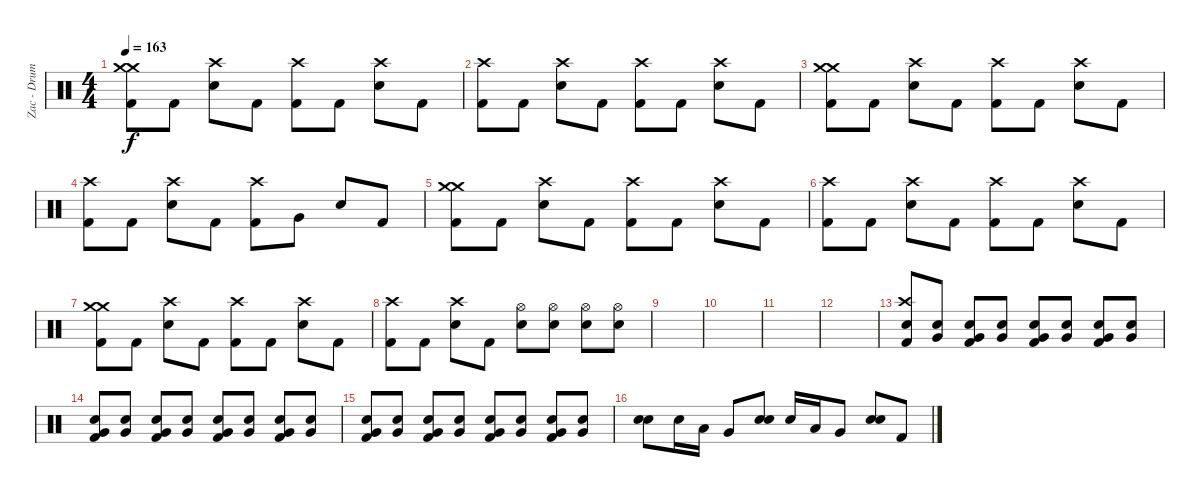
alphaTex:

\track ("Zac - Drums" "Zac - Drum") {instrument percussion}
\staff {score}
\articulation defaults
\ts (4 4)
\tempo 163
\clef neutral
\ks c
("Crash medium (hit)" "Crash medium (hit)" "Kick (hit) 2").8{dy f} "Kick (hit) 2".8 ("Crash high (hit)" "Snare (hit) 2").8 "Kick (hit) 2".8 ("Crash high (hit)" "Kick (hit) 2").8 "Kick (hit) 2".8 ("Crash high (hit)" "Snare (hit) 2").8 "Kick (hit) 2".8 |
("Crash high (hit)" "Kick (hit) 2").8 "Kick (hit) 2".8 ("Crash high (hit)" "Snare (hit) 2").8 "Kick (hit) 2".8 ("Crash high (hit)" "Kick (hit) 2").8 "Kick (hit) 2".8 ("Crash high (hit)" "Snare (hit) 2").8 "Kick (hit) 2".8 |
("Crash medium (hit)" "Crash medium (hit)" "Kick (hit) 2").8 "Kick (hit) 2".8 ("Crash high (hit)" "Snare (hit) 2").8 "Kick (hit) 2".8 ("Crash high (hit)" "Kick (hit) 2").8 "Kick (hit) 2".8 ("Crash high (hit)" "Snare (hit) 2").8 "Kick (hit) 2".8 |
("Crash high (hit)" "Kick (hit) 2").8 "Kick (hit) 2".8 ("Crash high (hit)" "Snare (hit) 2").8 "Kick (hit) 2".8 ("Crash high (hit)" "Kick (hit) 2").8 "Very Low Tom (hit)".8 "Snare (hit) 2".8 "Kick (hit) 2".8 |
("Crash medium (hit)" "Crash medium (hit)" "Kick (hit) 2").8 "Kick (hit) 2".8 ("Crash high (hit)" "Snare (hit) 2").8 "Kick (hit) 2".8 ("Crash high (hit)" "Kick (hit) 2").8 "Kick (hit) 2".8 ("Crash high (hit)" "Snare (hit) 2").8 "Kick (hit) 2".8 |
("Crash high (hit)" "Kick (hit) 2").8 "Kick (hit) 2".8 ("Crash high (hit)" "Snare (hit) 2").8 "Kick (hit) 2".8 ("Crash high (hit)" "Kick (hit) 2").8 "Kick (hit) 2".8 ("Crash high (hit)" "Snare (hit) 2").8 "Kick (hit) 2".8 |
("Crash medium (hit)" "Crash medium (hit)" "Kick (hit) 2").8 "Kick (hit) 2".8 ("Crash high (hit)" "Snare (hit) 2").8 "Kick (hit) 2".8 ("Crash high (hit)" "Kick (hit) 2").8 "Kick (hit) 2".8 ("Crash high (hit)" "Snare (hit) 2").8 "Kick (hit) 2".8 |
("Crash high (hit)" "Kick (hit) 2").8 "Kick (hit) 2".8 ("Crash high (hit)" "Snare (hit) 2").8 "Kick (hit) 2".8 ("Hi-Hat (open)" "Snare (hit) 2").8 ("Hi-Hat (open)" "Snare (hit) 2").8 ("Hi-Hat (open)" "Snare (hit) 2").8 ("Hi-Hat (open)" "Snare (hit) 2").8 |
|
|
|
|
("Crash high (hit)" "Snare (hit) 2" "Kick (hit) 2").8 ("Snare (hit) 2" "Very Low Tom (hit)").8 ("Snare (hit) 2" "Very Low Tom (hit)" "Kick (hit) 2").8 ("Snare (hit) 2" "Very Low Tom (hit)").8 ("Snare (hit) 2" "Very Low Tom (hit)" "Kick (hit) 2").8 ("Snare (hit) 2" "Very Low Tom (hit)").8 ("Snare (hit) 2" "Very Low Tom (hit)" "Kick (hit) 2").8 ("Snare (hit) 2" "Very Low Tom (hit)").8 |
("Snare (hit) 2" "Very Low Tom (hit)" "Kick (hit) 2").8 ("Snare (hit) 2" "Very Low Tom (hit)").8 ("Snare (hit) 2" "Very Low Tom (hit)" "Kick (hit) 2").8 ("Snare (hit) 2" "Very Low Tom (hit)").8 ("Snare (hit) 2" "Very Low Tom (hit)" "Kick (hit) 2").8 ("Snare (hit) 2" "Very Low Tom (hit)").8 ("Snare (hit) 2" "Very Low Tom (hit)" "Kick (hit) 2").8 ("Snare (hit) 2" "Very Low Tom (hit)").8 |
("Snare (hit) 2" "Very Low Tom (hit)" "Kick (hit) 2").8 ("Snare (hit) 2" "Very Low Tom (hit)").8 ("Snare (hit) 2" "Very Low Tom (hit)" "Kick (hit) 2").8 ("Snare (hit) 2" "Very Low Tom (hit)").8 ("Snare (hit) 2" "Very Low Tom (hit)" "Kick (hit) 2").8 ("Snare (hit) 2" "Very Low Tom (hit)").8 ("Snare (hit) 2" "Very Low Tom (hit)" "Kick (hit) 2").8 ("Snare (hit) 2" "Very Low Tom (hit)").8 |
("Snare (hit) 2" "Snare (hit) 2").8 "Snare (hit) 2".16 "Low Tom (hit)".16 "Very Low Tom (hit)".8 ("Snare (hit) 2" "Snare (hit) 2").8 "Snare (hit) 2".16 "Low Tom (hit)".16 "Very Low Tom (hit)".8 ("Snare (hit) 2" "Snare (hit) 2").8 "Kick (hit) 2".8
